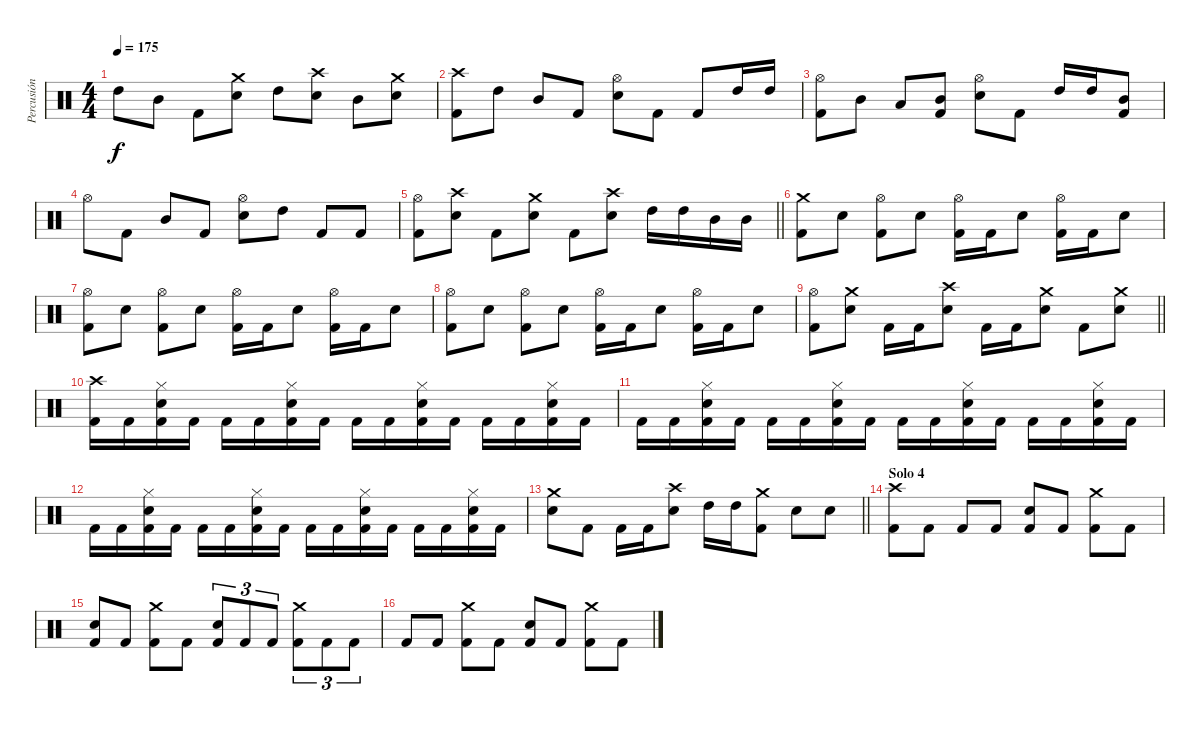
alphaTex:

\track ("Percusión" "Percusión") {instrument percussion}
\staff {score}
\articulation defaults
\ts (4 4)
\tempo 175
\clef neutral
\ks c "High Tom (hit)".8{dy f} "Mid Tom (hit)".8 "Kick (hit) 2".8
("Crash medium (hit)" "Snare (hit) 2").8 "High Tom (hit)".8 ("Crash high (hit)" "Snare (hit) 2").8 "Mid Tom (hit)".8 ("Crash medium (hit)" "Snare (hit) 2").8 |
("Crash high (hit)" "Kick (hit) 2").8 "High Tom (hit)".8 "Mid Tom (hit)".8 "Kick (hit) 2".8 ("Hi-Hat (open)" "Snare (hit) 2").8 "Kick (hit) 2".8 "Kick (hit) 2".8 "High Tom (hit)".16 "High Tom (hit)".16 |
("Hi-Hat (open)" "Kick (hit) 2").8 "Mid Tom (hit)".8 "Low Tom (hit)".8 ("Mid Tom (hit)" "Kick (hit) 2").8 ("Hi-Hat (open)" "Snare (hit) 2").8 "Kick (hit) 2".8 "High Tom (hit)".16 "High Tom (hit)".16 ("Mid Tom (hit)" "Kick (hit) 2").8 |
"Hi-Hat (open)".8 "Kick (hit) 2".8 "Mid Tom (hit)".8 "Kick (hit) 2".8 ("Hi-Hat (open)" "Snare (hit) 2").8 "High Tom (hit)".8 "Kick (hit) 2".8 "Kick (hit) 2".8 |
\barLineRight lightlight
("Hi-Hat (open)" "Kick (hit) 2").8 ("Crash high (hit)" "Snare (hit) 2").8 "Kick (hit) 2".8 ("Crash medium (hit)" "Snare (hit) 2").8 "Kick (hit) 2".8 ("Crash high (hit)" "Snare (hit) 2").8 "High Tom (hit)".16 "High Tom (hit)".16 "Mid Tom (hit)".16 "Mid Tom (hit)".16 |
\section ("" "")
("Crash medium (hit)" "Kick (hit) 2").8 "Snare (hit) 2".8 ("Hi-Hat (open)" "Kick (hit) 2").8 "Snare (hit) 2".8 ("Hi-Hat (open)" "Kick (hit) 2").16 "Kick (hit) 2".16 "Snare (hit) 2".8 ("Hi-Hat (open)" "Kick (hit) 2").16 "Kick (hit) 2".16 "Snare (hit) 2".8 |
("Hi-Hat (open)" "Kick (hit) 2").8 "Snare (hit) 2".8 ("Hi-Hat (open)" "Kick (hit) 2").8 "Snare (hit) 2".8 ("Hi-Hat (open)" "Kick (hit) 2").16 "Kick (hit) 2".16 "Snare (hit) 2".8 ("Hi-Hat (open)" "Kick (hit) 2").16 "Kick (hit) 2".16 "Snare (hit) 2".8 |
("Hi-Hat (open)" "Kick (hit) 2").8 "Snare (hit) 2".8 ("Hi-Hat (open)" "Kick (hit) 2").8 "Snare (hit) 2".8 ("Hi-Hat (open)" "Kick (hit) 2").16 "Kick (hit) 2".16 "Snare (hit) 2".8 ("Hi-Hat (open)" "Kick (hit) 2").16 "Kick (hit) 2".16 "Snare (hit) 2".8 |
\barLineRight lightlight
("Hi-Hat (open)" "Kick (hit) 2").8 ("Crash medium (hit)" "Snare (hit) 2").8 "Kick (hit) 2".16 "Kick (hit) 2".16 ("Crash high (hit)" "Snare (hit) 2").8 "Kick (hit) 2".16 "Kick (hit) 2".16 ("Crash medium (hit)" "Snare (hit) 2").8 "Kick (hit) 2".8 ("Crash medium (hit)" "Snare (hit) 2").8 |
("Crash high (hit)" "Kick (hit) 2").16 "Kick (hit) 2".16 ("Hi-Hat (closed)" "Snare (hit) 2" "Kick (hit) 2").16 "Kick (hit) 2".16 "Kick (hit) 2".16 "Kick (hit) 2".16 ("Hi-Hat (closed)" "Snare (hit) 2" "Kick (hit) 2").16 "Kick (hit) 2".16 "Kick (hit) 2".16 "Kick (hit) 2".16 ("Hi-Hat (closed)" "Snare (hit) 2" "Kick (hit) 2").16 "Kick (hit) 2".16 "Kick (hit) 2".16 "Kick (hit) 2".16 ("Hi-Hat (closed)" "Snare (hit) 2" "Kick (hit) 2").16 "Kick (hit) 2".16 |
"Kick (hit) 2".16 "Kick (hit) 2".16 ("Hi-Hat (closed)" "Snare (hit) 2" "Kick (hit) 2").16 "Kick (hit) 2".16 "Kick (hit) 2".16 "Kick (hit) 2".16 ("Hi-Hat (closed)" "Snare (hit) 2" "Kick (hit) 2").16 "Kick (hit) 2".16 "Kick (hit) 2".16 "Kick (hit) 2".16 ("Hi-Hat (closed)" "Snare (hit) 2" "Kick (hit) 2").16 "Kick (hit) 2".16 "Kick (hit) 2".16 "Kick (hit) 2".16 ("Hi-Hat (closed)" "Snare (hit) 2" "Kick (hit) 2").16 "Kick (hit) 2".16 |
"Kick (hit) 2".16 "Kick (hit) 2".16 ("Hi-Hat (closed)" "Snare (hit) 2" "Kick (hit) 2").16 "Kick (hit) 2".16 "Kick (hit) 2".16 "Kick (hit) 2".16 ("Hi-Hat (closed)" "Snare (hit) 2" "Kick (hit) 2").16 "Kick (hit) 2".16 "Kick (hit) 2".16 "Kick (hit) 2".16 ("Hi-Hat (closed)" "Snare (hit) 2" "Kick (hit) 2").16 "Kick (hit) 2".16 "Kick (hit) 2".16 "Kick (hit) 2".16 ("Hi-Hat (closed)" "Snare (hit) 2" "Kick (hit) 2").16 "Kick (hit) 2".16 |
\barLineRight lightlight
("Crash medium (hit)" "Snare (hit) 2").8 "Kick (hit) 2".8 "Kick (hit) 2".16 "Kick (hit) 2".16 ("Crash high (hit)" "Snare (hit) 2").8 "High Tom (hit)".16 "High Tom (hit)".16 ("Crash medium (hit)" "Kick (hit) 2").8 "Snare (hit) 2".8 "Snare (hit) 2".8 |
\section ("" "Solo 4")
("Crash high (hit)" "Kick (hit) 2").8 "Kick (hit) 2".8 "Kick (hit) 2".8 "Kick (hit) 2".8 ("Snare (hit) 2" "Kick (hit) 2").8 "Kick (hit) 2".8 ("Crash medium (hit)" "Kick (hit) 2").8 "Kick (hit) 2".8 |
("Snare (hit) 2" "Kick (hit) 2").8 "Kick (hit) 2".8 ("Crash medium (hit)" "Kick (hit) 2").8 "Kick (hit) 2".8 ("Snare (hit) 2" "Kick (hit) 2").8{tu (3 2)} "Kick (hit) 2".8{tu (3 2)} "Kick (hit) 2".8{tu (3 2)} ("Crash medium (hit)" "Kick (hit) 2").8{tu (3 2)} "Kick (hit) 2".8{tu (3 2)} "Kick (hit) 2".8{tu (3 2)} |
"Kick (hit) 2".8 "Kick (hit) 2".8 ("Crash medium (hit)" "Kick (hit) 2").8 "Kick (hit) 2".8 ("Snare (hit) 2" "Kick (hit) 2").8 "Kick (hit) 2".8 ("Crash medium (hit)" "Kick (hit) 2").8 "Kick (hit) 2".8
